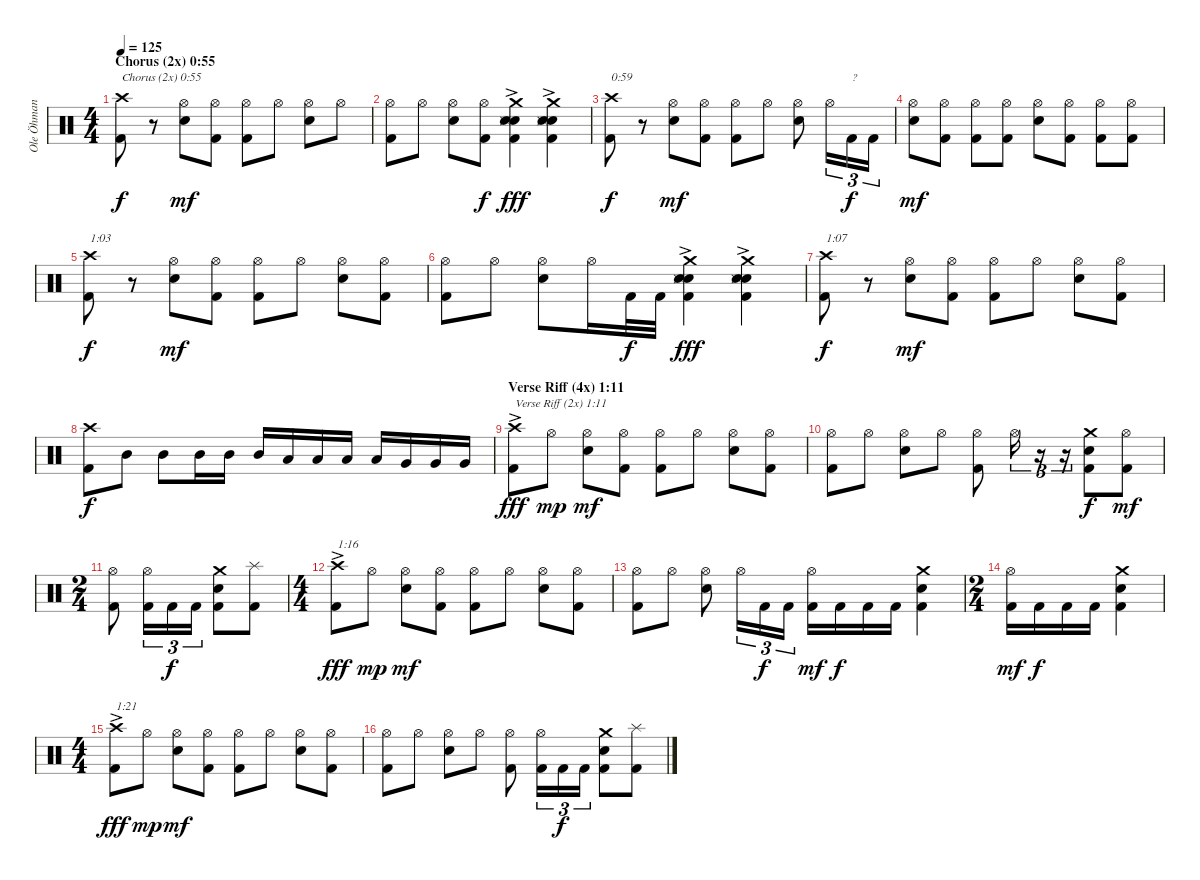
\track ("Ole Öhman" "Ole Öhman") {instrument percussion}
\staff {score}
\articulation defaults
\ts (4 4)
\section ("" "Chorus (2x) 0:55")
\tempo 125
\clef neutral
\ks c
("Kick (hit) 2" "Crash high (hit)").8{txt "Chorus (2x) 0:55" dy f} r.8 ("Electric Snare (hit)" "Hi-Hat (open)").8{dy mf} ("Kick (hit) 2" "Hi-Hat (open)").8 ("Kick (hit) 2" "Hi-Hat (open)").8 "Hi-Hat (open)".8 ("Electric Snare (hit)" "Hi-Hat (open)").8 "Hi-Hat (open)".8 |
("Kick (hit) 2" "Hi-Hat (open)").8 "Hi-Hat (open)".8 ("Electric Snare (hit)" "Hi-Hat (open)").8 ("Kick (hit) 2" "Hi-Hat (open)").8{dy f} ("Kick (hit) 2" "Electric Snare (hit)"{ac} "Electric Snare (hit)"{ac} "Snare (side stick) 3" "Crash medium (hit)"{ac}).4{dy fff} ("Kick (hit) 2" "Electric Snare (hit)"{ac} "Electric Snare (hit)"{ac} "Snare (side stick) 3" "Crash medium (hit)"{ac}).4 |
("Kick (hit) 2" "Crash high (hit)").8{txt "0:59" dy f} r.8 ("Electric Snare (hit)" "Hi-Hat (open)").8{dy mf} ("Kick (hit) 2" "Hi-Hat (open)").8 ("Kick (hit) 2" "Hi-Hat (open)").8 "Hi-Hat (open)".8 ("Electric Snare (hit)" "Hi-Hat (open)").8 "Hi-Hat (open)".16{tu (3 2)} "Kick (hit) 2".16{tu (3 2) txt "?" dy f} "Kick (hit) 2".16{tu (3 2)} |
("Electric Snare (hit)" "Hi-Hat (open)").8{dy mf} ("Kick (hit) 2" "Hi-Hat (open)").8 ("Kick (hit) 2" "Hi-Hat (open)").8 ("Kick (hit) 2" "Hi-Hat (open)").8 ("Electric Snare (hit)" "Hi-Hat (open)").8 ("Kick (hit) 2" "Hi-Hat (open)").8 ("Kick (hit) 2" "Hi-Hat (open)").8 ("Kick (hit) 2" "Hi-Hat (open)").8 |
("Kick (hit) 2" "Crash high (hit)").8{txt "1:03" dy f} r.8 ("Electric Snare (hit)" "Hi-Hat (open)").8{dy mf} ("Kick (hit) 2" "Hi-Hat (open)").8 ("Kick (hit) 2" "Hi-Hat (open)").8 "Hi-Hat (open)".8 ("Electric Snare (hit)" "Hi-Hat (open)").8 ("Kick (hit) 2" "Hi-Hat (open)").8 |
("Kick (hit) 2" "Hi-Hat (open)").8 "Hi-Hat (open)".8 ("Electric Snare (hit)" "Hi-Hat (open)").8 "Hi-Hat (open)".16 "Kick (hit) 2".32{dy f} "Kick (hit) 2".32 ("Kick (hit) 2" "Electric Snare (hit)"{ac} "Electric Snare (hit)"{ac} "Snare (side stick) 3" "Crash medium (hit)"{ac}).4{dy fff} ("Kick (hit) 2" "Electric Snare (hit)"{ac} "Electric Snare (hit)"{ac} "Snare (side stick) 3" "Crash medium (hit)"{ac}).4 |
("Kick (hit) 2" "Crash high (hit)").8{txt "1:07" dy f} r.8 ("Electric Snare (hit)" "Hi-Hat (open)").8{dy mf} ("Kick (hit) 2" "Hi-Hat (open)").8 ("Kick (hit) 2" "Hi-Hat (open)").8 "Hi-Hat (open)".8 ("Electric Snare (hit)" "Hi-Hat (open)").8 ("Kick (hit) 2" "Hi-Hat (open)").8 |
("Kick (hit) 2" "Crash high (hit)").8{dy f} "Mid Tom (hit)".8 "Mid Tom (hit)".8 "Mid Tom (hit)".16 "Mid Tom (hit)".16 "Mid Tom (hit)".16 "Low Tom (hit)".16 "Low Tom (hit)".16 "Low Tom (hit)".16 "Low Tom (hit)".16 "Very Low Tom (hit)".16 "Very Low Tom (hit)".16 "Very Low Tom (hit)".16 |
\section ("" "Verse Riff (4x) 1:11")
("Kick (hit) 2" "Crash high (hit)"{ac}).8{txt "Verse Riff (2x) 1:11" dy fff} "Hi-Hat (open)".8{dy mp} ("Electric Snare (hit)" "Hi-Hat (open)").8{dy mf} ("Kick (hit) 2" "Hi-Hat (open)").8 ("Kick (hit) 2" "Hi-Hat (open)").8 "Hi-Hat (open)".8 ("Electric Snare (hit)" "Hi-Hat (open)").8 ("Kick (hit) 2" "Hi-Hat (open)").8 |
("Kick (hit) 2" "Hi-Hat (open)").8 "Hi-Hat (open)".8 ("Electric Snare (hit)" "Hi-Hat (open)").8 "Hi-Hat (open)".8 ("Kick (hit) 2" "Hi-Hat (open)").8 "Hi-Hat (open)".16{tu (3 2)} r.16{tu (3 2)} r.16{tu (3 2)} ("Kick (hit) 2" "Electric Snare (hit)" "Crash medium (hit)").8{dy f} ("Kick (hit) 2" "Hi-Hat (open)").8{dy mf} |
\ts (2 4)
("Kick (hit) 2" "Hi-Hat (open)").8 ("Kick (hit) 2" "Hi-Hat (open)").16{tu (3 2)} "Kick (hit) 2".16{tu (3 2) dy f} "Kick (hit) 2".16{tu (3 2)} ("Kick (hit) 2" "Electric Snare (hit)" "Crash medium (hit)").8 ("Kick (hit) 2" "Splash (hit)").8 |
\ts (4 4)
("Kick (hit) 2" "Crash high (hit)"{ac}).8{txt "1:16" dy fff} "Hi-Hat (open)".8{dy mp} ("Electric Snare (hit)" "Hi-Hat (open)").8{dy mf} ("Kick (hit) 2" "Hi-Hat (open)").8 ("Kick (hit) 2" "Hi-Hat (open)").8 "Hi-Hat (open)".8 ("Electric Snare (hit)" "Hi-Hat (open)").8 ("Kick (hit) 2" "Hi-Hat (open)").8 |
("Kick (hit) 2" "Hi-Hat (open)").8 "Hi-Hat (open)".8 ("Electric Snare (hit)" "Hi-Hat (open)").8 "Hi-Hat (open)".16{tu (3 2)} "Kick (hit) 2".16{tu (3 2) dy f} "Kick (hit) 2".16{tu (3 2)} ("Kick (hit) 2" "Hi-Hat (open)").16{dy mf} "Kick (hit) 2".16{dy f} "Kick (hit) 2".16 "Kick (hit) 2".16 ("Kick (hit) 2" "Electric Snare (hit)" "Crash medium (hit)").4 |
\ts (2 4)
("Kick (hit) 2" "Hi-Hat (open)").16{dy mf} "Kick (hit) 2".16{dy f} "Kick (hit) 2".16 "Kick (hit) 2".16 ("Kick (hit) 2" "Electric Snare (hit)" "Crash medium (hit)").4 |
\ts (4 4)
("Kick (hit) 2" "Crash high (hit)"{ac}).8{txt "1:21" dy fff} "Hi-Hat (open)".8{dy mp} ("Electric Snare (hit)" "Hi-Hat (open)").8{dy mf} ("Kick (hit) 2" "Hi-Hat (open)").8 ("Kick (hit) 2" "Hi-Hat (open)").8 "Hi-Hat (open)".8 ("Electric Snare (hit)" "Hi-Hat (open)").8 ("Kick (hit) 2" "Hi-Hat (open)").8 |
("Kick (hit) 2" "Hi-Hat (open)").8 "Hi-Hat (open)".8 ("Electric Snare (hit)" "Hi-Hat (open)").8 "Hi-Hat (open)".8 ("Kick (hit) 2" "Hi-Hat (open)").8 ("Kick (hit) 2" "Hi-Hat (open)").16{tu (3 2)} "Kick (hit) 2".16{tu (3 2) dy f} "Kick (hit) 2".16{tu (3 2)} ("Kick (hit) 2" "Electric Snare (hit)" "Crash medium (hit)").8 ("Kick (hit) 2" "Splash (hit)").8
